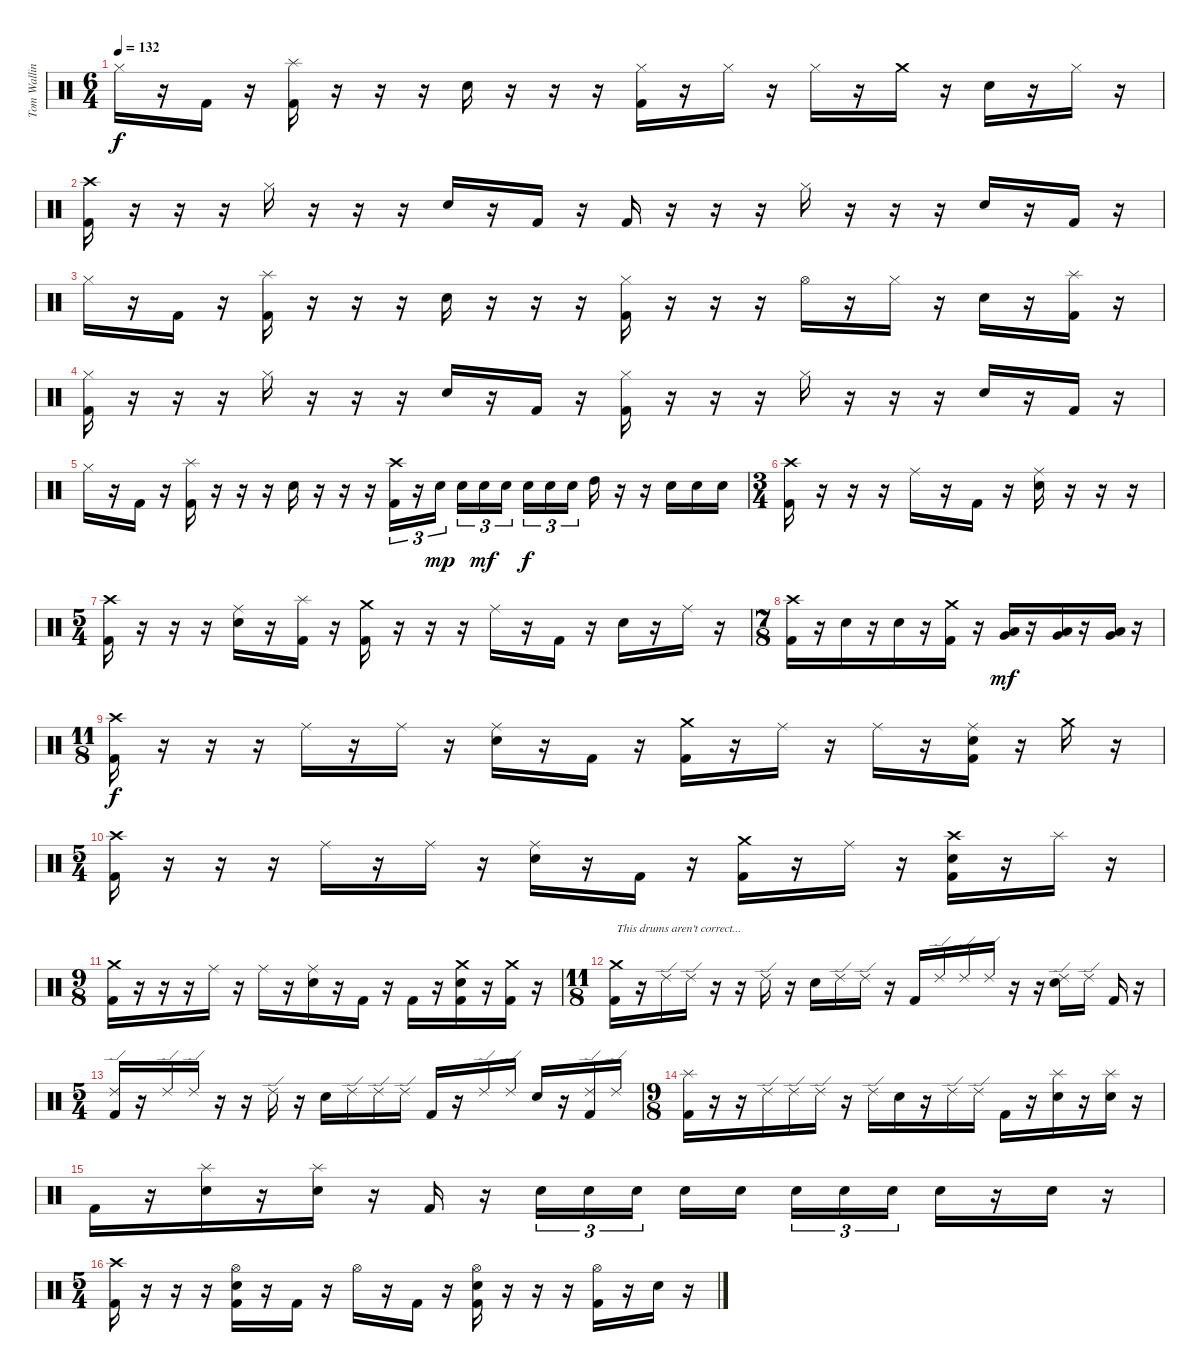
\track ("Tom Walling [Drums]" "Tom Wallin") {instrument percussion}
\staff {score}
\articulation defaults
\ts (6 4)
\tempo 132
\clef neutral
\ks c "Hi-Hat (closed)".16{dy f}
r.16 "Kick (hit) 2".16 r.16 ("Splash (hit)" "Kick (hit) 2").16 r.16 r.16 r.16 "Electric Snare (hit)".16 r.16 r.16 r.16 ("Hi-Hat (closed)" "Kick (hit) 2").16 r.16 "Hi-Hat (closed)".16 r.16 "Hi-Hat (closed)".16 r.16 "Crash medium (hit)".16 r.16 "Electric Snare (hit)".16 r.16 "Hi-Hat (closed)".16 r.16 |
("Crash high (hit)" "Kick (hit) 2").16 r.16 r.16 r.16 "Hi-Hat (closed)".16 r.16 r.16 r.16 "Electric Snare (hit)".16 r.16 "Kick (hit) 2".16 r.16 "Kick (hit) 2".16 r.16 r.16 r.16 "Hi-Hat (closed)".16 r.16 r.16 r.16 "Electric Snare (hit)".16 r.16 "Kick (hit) 2".16 r.16 |
"Hi-Hat (closed)".16 r.16 "Kick (hit) 2".16 r.16 ("Splash (hit)" "Kick (hit) 2").16 r.16 r.16 r.16 "Electric Snare (hit)".16 r.16 r.16 r.16 ("Hi-Hat (closed)" "Kick (hit) 2").16 r.16 r.16 r.16 "Hi-Hat (open)".16 r.16 "Hi-Hat (closed)".16 r.16 "Electric Snare (hit)".16 r.16 ("Splash (hit)" "Kick (hit) 2").16 r.16 |
("Hi-Hat (closed)" "Kick (hit) 2").16 r.16 r.16 r.16 "Hi-Hat (closed)".16 r.16 r.16 r.16 "Electric Snare (hit)".16 r.16 "Kick (hit) 2".16 r.16 ("Hi-Hat (closed)" "Kick (hit) 2").16 r.16 r.16 r.16 "Hi-Hat (closed)".16 r.16 r.16 r.16 "Electric Snare (hit)".16 r.16 "Kick (hit) 2".16 r.16 |
"Hi-Hat (closed)".16 r.16 "Kick (hit) 2".16 r.16 ("Splash (hit)" "Kick (hit) 2").16 r.16 r.16 r.16 "Electric Snare (hit)".16 r.16 r.16 r.16 ("Crash high (hit)" "Kick (hit) 2").16{tu (3 2)} r.16{tu (3 2)} "Electric Snare (hit)".16{tu (3 2) dy mp} "Electric Snare (hit)".16{tu (3 2)} "Electric Snare (hit)".16{tu (3 2) dy mf} "Electric Snare (hit)".16{tu (3 2)} "Electric Snare (hit)".16{tu (3 2) dy f} "Electric Snare (hit)".16{tu (3 2)} "Electric Snare (hit)".16{tu (3 2)} "High Tom (hit)".16 r.16 r.16 "Electric Snare (hit)".16 "Electric Snare (hit)".16 "Electric Snare (hit)".16 |
\ts (3 4)
("Crash high (hit)" "Kick (hit) 2").16 r.16 r.16 r.16 "Ride (middle)".16 r.16 "Kick (hit) 2".16 r.16 ("Ride (middle)" "Electric Snare (hit)").16 r.16 r.16 r.16 |
\ts (5 4)
("Crash high (hit)" "Kick (hit) 2").16 r.16 r.16 r.16 ("Ride (middle)" "Electric Snare (hit)").16 r.16 ("Splash (hit)" "Kick (hit) 2").16 r.16 ("Crash medium (hit)" "Kick (hit) 2").16 r.16 r.16 r.16 "Ride (middle)".16 r.16 "Kick (hit) 2".16 r.16 "Electric Snare (hit)".16 r.16 "Ride (middle)".16 r.16 |
\ts (7 8)
("Crash high (hit)" "Kick (hit) 2").16 r.16 "Electric Snare (hit)".16 r.16 "Electric Snare (hit)".16 r.16 ("Crash medium (hit)" "Kick (hit) 2").16 r.16 ("Low Tom (hit)" "Very Low Tom (hit)").16{dy mf} r.16 ("Low Tom (hit)" "Very Low Tom (hit)").16 r.16 ("Low Tom (hit)" "Very Low Tom (hit)").16 r.16 |
\ts (11 8)
("Crash high (hit)" "Kick (hit) 2").16{dy f} r.16 r.16 r.16 "Ride (middle)".16 r.16 "Ride (middle)".16 r.16 ("Ride (middle)" "Electric Snare (hit)").16 r.16 "Kick (hit) 2".16 r.16 ("Crash medium (hit)" "Kick (hit) 2").16 r.16 "Ride (middle)".16 r.16 "Ride (middle)".16 r.16 ("Ride (middle)" "Electric Snare (hit)" "Kick (hit) 2").16 r.16 "Crash medium (hit)".16 r.16 |
\ts (5 4)
("Crash high (hit)" "Kick (hit) 2").16 r.16 r.16 r.16 "Ride (middle)".16 r.16 "Ride (middle)".16 r.16 ("Ride (middle)" "Electric Snare (hit)").16 r.16 "Kick (hit) 2".16 r.16 ("Crash medium (hit)" "Kick (hit) 2").16 r.16 "Ride (middle)".16 r.16 ("Crash high (hit)" "Electric Snare (hit)" "Kick (hit) 2").16 r.16 "Splash (hit)".16 r.16 |
\ts (9 8)
("Crash medium (hit)" "Kick (hit) 2").16 r.16 r.16 r.16 "Ride (middle)".16 r.16 "Ride (middle)".16 r.16 ("Ride (middle)" "Electric Snare (hit)").16 r.16 "Kick (hit) 2".16 r.16 "Kick (hit) 2".16 r.16 ("Crash medium (hit)" "Electric Snare (hit)" "Kick (hit) 2").16 r.16 ("Crash medium (hit)" "Kick (hit) 2").16 r.16 |
\ts (11 8)
("Crash medium (hit)" "Kick (hit) 2").16{txt "This drums aren't correct..."} r.16 "Ride (edge) 2".16 "Ride (edge) 2".16 r.16 r.16 "Ride (edge) 2".16 r.16 "Electric Snare (hit)".16 "Ride (edge) 2".16 "Ride (edge) 2".16 r.16 "Kick (hit) 2".16 "Ride (edge) 2".16 "Ride (edge) 2".16 "Ride (edge) 2".16 r.16 r.16 ("Ride (edge) 2" "Electric Snare (hit)").16 "Ride (edge) 2".16 "Kick (hit) 2".16 r.16 |
\ts (5 4)
("Ride (edge) 2" "Kick (hit) 2").16 r.16 "Ride (edge) 2".16 "Ride (edge) 2".16 r.16 r.16 "Ride (edge) 2".16 r.16 "Electric Snare (hit)".16 "Ride (edge) 2".16 "Ride (edge) 2".16 "Ride (edge) 2".16 "Kick (hit) 2".16 r.16 "Ride (edge) 2".16 "Ride (edge) 2".16 "Electric Snare (hit)".16 r.16 ("Ride (edge) 2" "Kick (hit) 2").16 "Ride (edge) 2".16 |
\ts (9 8)
("Splash (hit)" "Kick (hit) 2").16 r.16 r.16 "Ride (edge) 2".16 "Ride (edge) 2".16 "Ride (edge) 2".16 r.16 "Ride (edge) 2".16 "Electric Snare (hit)".16 r.16 "Ride (edge) 2".16 "Ride (edge) 2".16 "Kick (hit) 2".16 r.16 ("Splash (hit)" "Electric Snare (hit)").16 r.16 ("Splash (hit)" "Electric Snare (hit)").16 r.16 |
"Kick (hit) 2".16 r.16 ("Splash (hit)" "Electric Snare (hit)").16 r.16 ("Splash (hit)" "Electric Snare (hit)").16 r.16 "Kick (hit) 2".16 r.16 "Electric Snare (hit)".16{tu (3 2)} "Electric Snare (hit)".16{tu (3 2)} "Electric Snare (hit)".16{tu (3 2)} "Electric Snare (hit)".16 "Electric Snare (hit)".16 "Electric Snare (hit)".16{tu (3 2)} "Electric Snare (hit)".16{tu (3 2)} "Electric Snare (hit)".16{tu (3 2)} "Electric Snare (hit)".16 r.16 "Electric Snare (hit)".16 r.16 |
\ts (5 4)
("Crash high (hit)" "Kick (hit) 2").16 r.16 r.16 r.16 ("Hi-Hat (open)" "Electric Snare (hit)" "Kick (hit) 2").16 r.16 "Kick (hit) 2".16 r.16 "Hi-Hat (open)".16 r.16 "Kick (hit) 2".16 r.16 ("Hi-Hat (open)" "Electric Snare (hit)" "Kick (hit) 2").16 r.16 r.16 r.16 ("Hi-Hat (open)" "Kick (hit) 2").16 r.16 "Electric Snare (hit)".16 r.16
